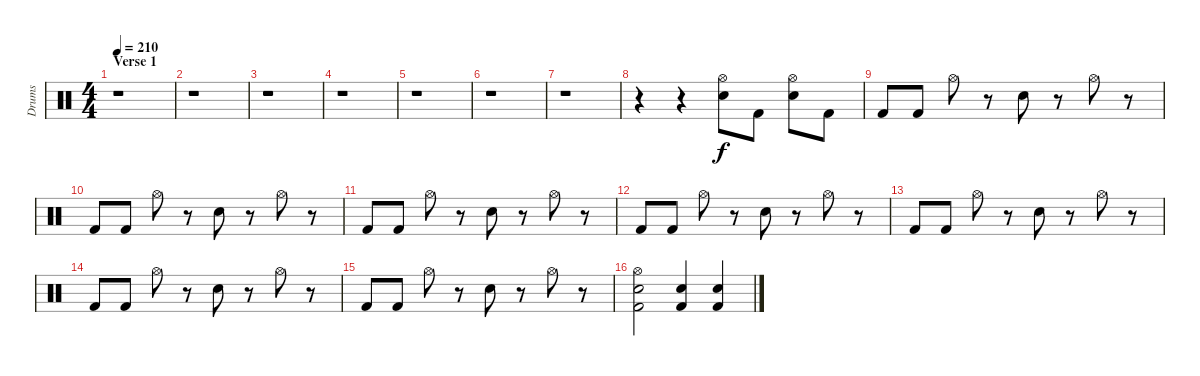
\track ("Drums" "Drums") {instrument percussion}
\staff {score}
\articulation defaults
\ts (4 4)
\section ("" "Verse 1")
\tempo 210
\clef neutral
\ks c
r.1{dy f} |
r.1 |
r.1 |
r.1 |
r.1 |
r.1 |
r.1 |
r.4 r.4 ("Hi-Hat (open)" "Electric Snare (hit)").8 "Kick (hit) 2".8 ("Hi-Hat (open)" "Electric Snare (hit)").8 "Kick (hit) 2".8 |
"Kick (hit) 2".8 "Kick (hit) 2".8 "Hi-Hat (open)".8 r.8 "Electric Snare (hit)".8 r.8 "Hi-Hat (open)".8 r.8 |
"Kick (hit) 2".8 "Kick (hit) 2".8 "Hi-Hat (open)".8 r.8 "Electric Snare (hit)".8 r.8 "Hi-Hat (open)".8 r.8 |
"Kick (hit) 2".8 "Kick (hit) 2".8 "Hi-Hat (open)".8 r.8 "Electric Snare (hit)".8 r.8 "Hi-Hat (open)".8 r.8 |
"Kick (hit) 2".8 "Kick (hit) 2".8 "Hi-Hat (open)".8 r.8 "Electric Snare (hit)".8 r.8 "Hi-Hat (open)".8 r.8 |
"Kick (hit) 2".8 "Kick (hit) 2".8 "Hi-Hat (open)".8 r.8 "Electric Snare (hit)".8 r.8 "Hi-Hat (open)".8 r.8 |
"Kick (hit) 2".8 "Kick (hit) 2".8 "Hi-Hat (open)".8 r.8 "Electric Snare (hit)".8 r.8 "Hi-Hat (open)".8 r.8 |
"Kick (hit) 2".8 "Kick (hit) 2".8 "Hi-Hat (open)".8 r.8 "Electric Snare (hit)".8 r.8 "Hi-Hat (open)".8 r.8 |
("Hi-Hat (open)" "Electric Snare (hit)" "Kick (hit) 2").2 ("Snare (hit) 2" "Kick (hit) 2").4 ("Snare (hit) 2" "Kick (hit) 2").4
